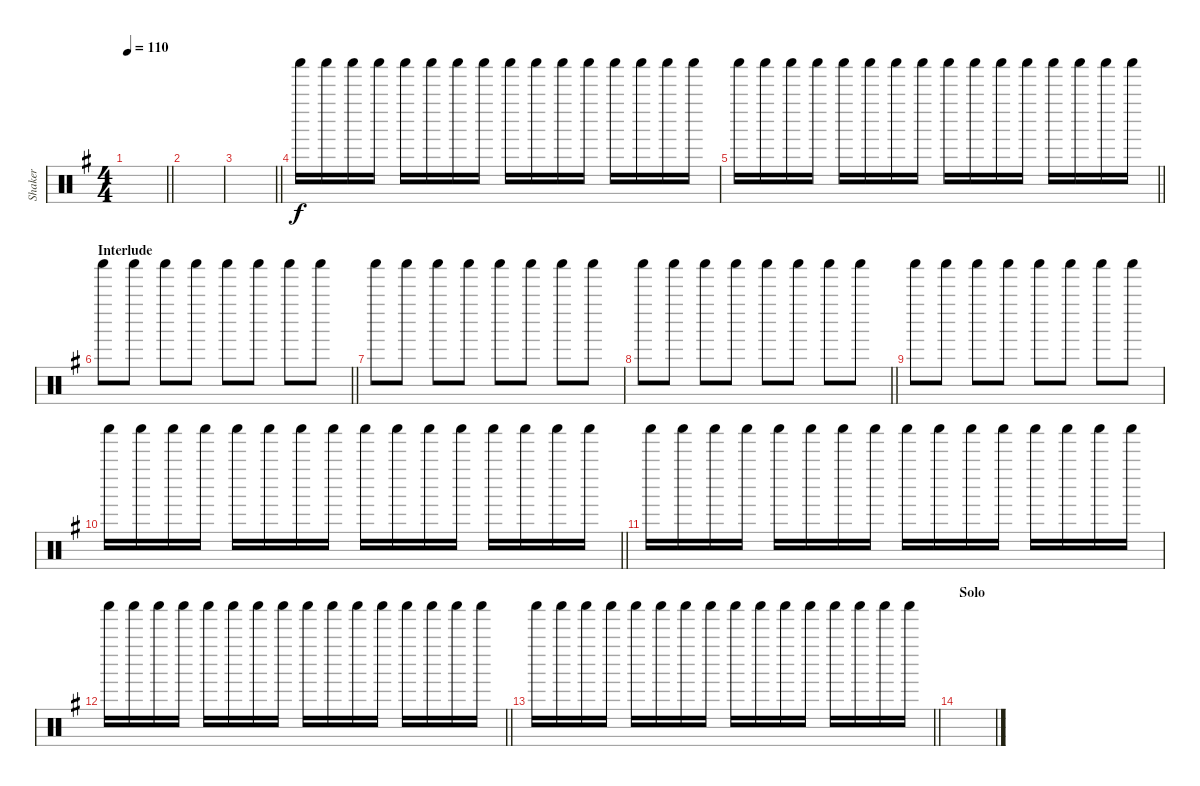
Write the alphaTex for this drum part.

\track ("Shaker" "Shaker") {instrument percussion}
\staff {score}
\articulation defaults
\ts (4 4)
\tempo 110
\clef neutral
\barLineRight lightlight
\ks g
|
|
\barLineRight lightlight
|
"Shaker (hit)".16 "Shaker (hit)".16 "Shaker (hit)".16 "Shaker (hit)".16 "Shaker (hit)".16 "Shaker (hit)".16 "Shaker (hit)".16 "Shaker (hit)".16 "Shaker (hit)".16 "Shaker (hit)".16 "Shaker (hit)".16 "Shaker (hit)".16 "Shaker (hit)".16 "Shaker (hit)".16 "Shaker (hit)".16 "Shaker (hit)".16 |
\barLineRight lightlight "Shaker (hit)".16 "Shaker (hit)".16 "Shaker (hit)".16 "Shaker (hit)".16 "Shaker (hit)".16 "Shaker (hit)".16 "Shaker (hit)".16 "Shaker (hit)".16 "Shaker (hit)".16 "Shaker (hit)".16 "Shaker (hit)".16 "Shaker (hit)".16 "Shaker (hit)".16 "Shaker (hit)".16 "Shaker (hit)".16 "Shaker (hit)".16
|
\section ("" "Interlude")
\barLineRight lightlight "Shaker (hit)".8 "Shaker (hit)".8 "Shaker (hit)".8 "Shaker (hit)".8 "Shaker (hit)".8 "Shaker (hit)".8 "Shaker (hit)".8 "Shaker (hit)".8
|
"Shaker (hit)".8 "Shaker (hit)".8 "Shaker (hit)".8 "Shaker (hit)".8 "Shaker (hit)".8 "Shaker (hit)".8 "Shaker (hit)".8 "Shaker (hit)".8 |
\barLineRight lightlight "Shaker (hit)".8 "Shaker (hit)".8 "Shaker (hit)".8 "Shaker (hit)".8 "Shaker (hit)".8 "Shaker (hit)".8 "Shaker (hit)".8 "Shaker (hit)".8
|
"Shaker (hit)".8 "Shaker (hit)".8 "Shaker (hit)".8 "Shaker (hit)".8 "Shaker (hit)".8 "Shaker (hit)".8 "Shaker (hit)".8 "Shaker (hit)".8 |
\barLineRight lightlight "Shaker (hit)".16 "Shaker (hit)".16 "Shaker (hit)".16 "Shaker (hit)".16 "Shaker (hit)".16 "Shaker (hit)".16 "Shaker (hit)".16 "Shaker (hit)".16 "Shaker (hit)".16 "Shaker (hit)".16 "Shaker (hit)".16 "Shaker (hit)".16 "Shaker (hit)".16 "Shaker (hit)".16 "Shaker (hit)".16 "Shaker (hit)".16
|
"Shaker (hit)".16 "Shaker (hit)".16 "Shaker (hit)".16 "Shaker (hit)".16 "Shaker (hit)".16 "Shaker (hit)".16 "Shaker (hit)".16 "Shaker (hit)".16 "Shaker (hit)".16 "Shaker (hit)".16 "Shaker (hit)".16 "Shaker (hit)".16 "Shaker (hit)".16 "Shaker (hit)".16 "Shaker (hit)".16 "Shaker (hit)".16 |
\barLineRight lightlight "Shaker (hit)".16 "Shaker (hit)".16 "Shaker (hit)".16 "Shaker (hit)".16 "Shaker (hit)".16 "Shaker (hit)".16 "Shaker (hit)".16 "Shaker (hit)".16 "Shaker (hit)".16 "Shaker (hit)".16 "Shaker (hit)".16 "Shaker (hit)".16 "Shaker (hit)".16 "Shaker (hit)".16 "Shaker (hit)".16 "Shaker (hit)".16
|
\barLineRight lightlight "Shaker (hit)".16 "Shaker (hit)".16 "Shaker (hit)".16 "Shaker (hit)".16 "Shaker (hit)".16 "Shaker (hit)".16 "Shaker (hit)".16 "Shaker (hit)".16 "Shaker (hit)".16 "Shaker (hit)".16 "Shaker (hit)".16 "Shaker (hit)".16 "Shaker (hit)".16 "Shaker (hit)".16 "Shaker (hit)".16 "Shaker (hit)".16
|
\section ("" "Solo")
